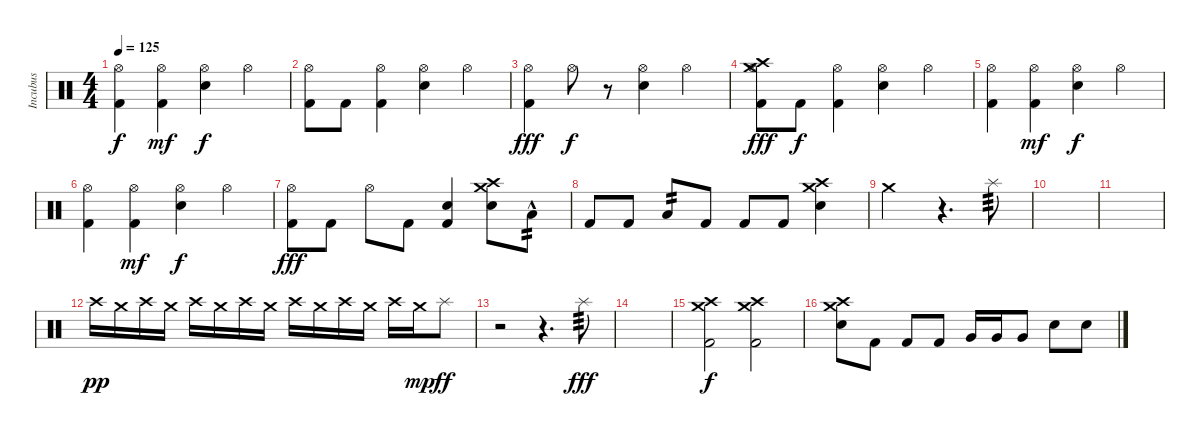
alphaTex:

\track ("Incubus" "Incubus") {instrument percussion}
\staff {score}
\articulation defaults
\ts (4 4)
\tempo 125
\clef neutral
\ks c
("Hi-Hat (open)" "Kick (hit) 2").4{dy f} ("Hi-Hat (open)" "Kick (hit) 2").4{dy mf} ("Hi-Hat (open)" "Snare (hit) 2").4{dy f} "Hi-Hat (open)".4 |
("Hi-Hat (open)" "Kick (hit) 2").8 "Kick (hit) 2".8 ("Hi-Hat (open)" "Kick (hit) 2").4 ("Hi-Hat (open)" "Snare (hit) 2").4 "Hi-Hat (open)".4 |
("Hi-Hat (open)" "Kick (hit) 2").4{dy fff} "Hi-Hat (open)".8{dy f} r.8 ("Hi-Hat (open)" "Snare (hit) 2").4 "Hi-Hat (open)".4 |
("Crash high (hit)" "Crash medium (hit)" "Hi-Hat (open)" "Kick (hit) 2").8{dy fff} "Kick (hit) 2".8{dy f} ("Hi-Hat (open)" "Kick (hit) 2").4 ("Hi-Hat (open)" "Snare (hit) 2").4 "Hi-Hat (open)".4 |
("Hi-Hat (open)" "Kick (hit) 2").4 ("Hi-Hat (open)" "Kick (hit) 2").4{dy mf} ("Hi-Hat (open)" "Snare (hit) 2").4{dy f} "Hi-Hat (open)".4 |
("Hi-Hat (open)" "Kick (hit) 2").4 ("Hi-Hat (open)" "Kick (hit) 2").4{dy mf} ("Hi-Hat (open)" "Snare (hit) 2").4{dy f} "Hi-Hat (open)".4 |
("Hi-Hat (open)" "Kick (hit) 2").8{dy fff} "Kick (hit) 2".8 "Hi-Hat (open)".8 "Kick (hit) 2".8 ("Snare (hit) 2" "Kick (hit) 2").4 ("Crash high (hit)" "Crash medium (hit)" "Snare (hit) 2").8 "Low Floor Tom (hit)"{hac}.8{tp 2} |
"Kick (hit) 2".8 "Kick (hit) 2".8 "Low Floor Tom (hit)".8{tp 2} "Kick (hit) 2".8 "Kick (hit) 2".8 "Kick (hit) 2".8 ("Crash high (hit)" "Crash medium (hit)" "Snare (hit) 2").4 |
"Crash medium (hit)".2 r.4{d} "Splash (hit)".8{tp 3} |
|
|
"Crash high (hit)".16{dy pp} "Crash medium (hit)".16 "Crash high (hit)".16 "Crash medium (hit)".16 "Crash high (hit)".16 "Crash medium (hit)".16 "Crash high (hit)".16 "Crash medium (hit)".16 "Crash high (hit)".16 "Crash medium (hit)".16 "Crash high (hit)".16 "Crash medium (hit)".16 "Crash high (hit)".16 "Crash medium (hit)".16{dy mp} "Splash (hit)".8{dy ff} |
r.2 r.4{d} "Splash (hit)".8{tp 3 dy fff} |
|
("Crash high (hit)" "Crash medium (hit)" "Kick (hit) 2").2{dy f} ("Crash high (hit)" "Crash medium (hit)" "Kick (hit) 2").2 |
("Crash high (hit)" "Crash medium (hit)" "Snare (hit) 2").8 "Kick (hit) 2".8 "Kick (hit) 2".8 "Kick (hit) 2".8 "Very Low Tom (hit)".16 "Very Low Tom (hit)".16 "Very Low Tom (hit)".8 "Electric Snare (hit)".8 "Snare (hit) 2".8
